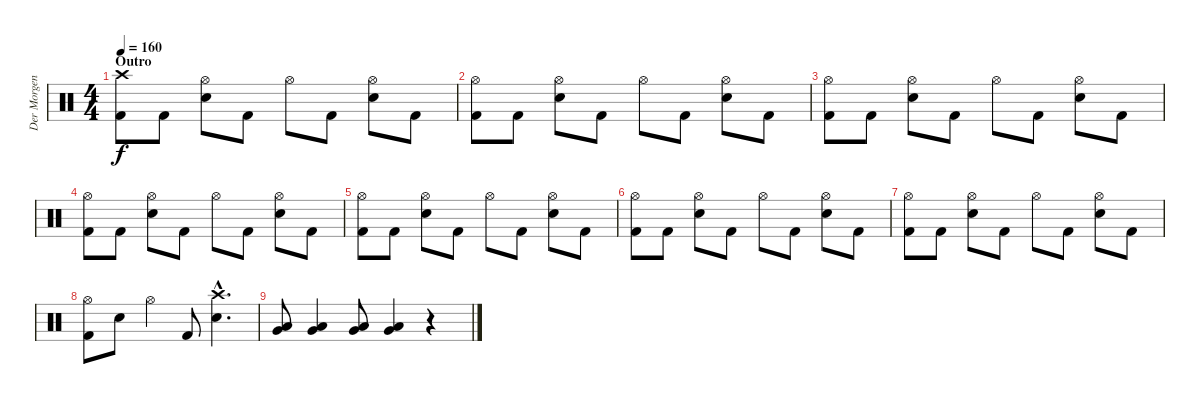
\track ("Der Morgenstern" "Der Morgen") {instrument percussion}
\staff {score}
\articulation defaults
\ts (4 4)
\section ("" "Outro")
\tempo 160
\clef neutral
\ks c
("Crash high (hit)" "Kick (hit) 2").8{dy f} "Kick (hit) 2".8 ("Hi-Hat (open)" "Electric Snare (hit)").8 "Kick (hit) 2".8 "Hi-Hat (open)".8 "Kick (hit) 2".8 ("Hi-Hat (open)" "Electric Snare (hit)").8 "Kick (hit) 2".8 |
("Hi-Hat (open)" "Kick (hit) 2").8 "Kick (hit) 2".8 ("Hi-Hat (open)" "Electric Snare (hit)").8 "Kick (hit) 2".8 "Hi-Hat (open)".8 "Kick (hit) 2".8 ("Hi-Hat (open)" "Electric Snare (hit)").8 "Kick (hit) 2".8 |
("Hi-Hat (open)" "Kick (hit) 2").8 "Kick (hit) 2".8 ("Hi-Hat (open)" "Electric Snare (hit)").8 "Kick (hit) 2".8 "Hi-Hat (open)".8 "Kick (hit) 2".8 ("Hi-Hat (open)" "Electric Snare (hit)").8 "Kick (hit) 2".8 |
("Hi-Hat (open)" "Kick (hit) 2").8 "Kick (hit) 2".8 ("Hi-Hat (open)" "Electric Snare (hit)").8 "Kick (hit) 2".8 "Hi-Hat (open)".8 "Kick (hit) 2".8 ("Hi-Hat (open)" "Electric Snare (hit)").8 "Kick (hit) 2".8 |
("Hi-Hat (open)" "Kick (hit) 2").8 "Kick (hit) 2".8 ("Hi-Hat (open)" "Electric Snare (hit)").8 "Kick (hit) 2".8 "Hi-Hat (open)".8 "Kick (hit) 2".8 ("Hi-Hat (open)" "Electric Snare (hit)").8 "Kick (hit) 2".8 |
("Hi-Hat (open)" "Kick (hit) 2").8 "Kick (hit) 2".8 ("Hi-Hat (open)" "Electric Snare (hit)").8 "Kick (hit) 2".8 "Hi-Hat (open)".8 "Kick (hit) 2".8 ("Hi-Hat (open)" "Electric Snare (hit)").8 "Kick (hit) 2".8 |
("Hi-Hat (open)" "Kick (hit) 2").8 "Kick (hit) 2".8 ("Hi-Hat (open)" "Electric Snare (hit)").8 "Kick (hit) 2".8 "Hi-Hat (open)".8 "Kick (hit) 2".8 ("Hi-Hat (open)" "Electric Snare (hit)").8 "Kick (hit) 2".8 |
("Hi-Hat (open)" "Kick (hit) 2").8 "Electric Snare (hit)".8 "Hi-Hat (open)".4 "Kick (hit) 2".8 ("Crash high (hit)"{hac} "Electric Snare (hit)"{hac}).4{d} |
("Very Low Tom (hit)" "Low Floor Tom (hit)").8 ("Low Tom (hit)" "Very Low Tom (hit)").4 ("Very Low Tom (hit)" "Low Floor Tom (hit)").8 ("Low Tom (hit)" "Very Low Tom (hit)").4 r.4
